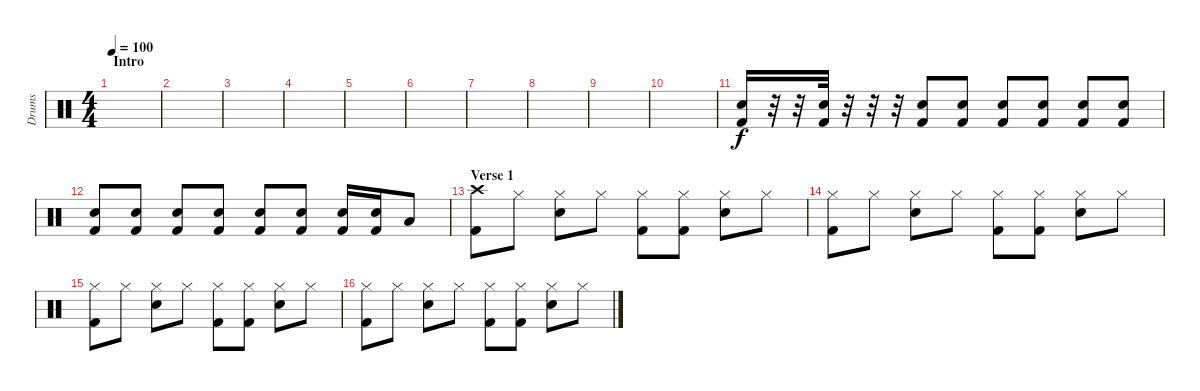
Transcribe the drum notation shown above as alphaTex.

\track ("Drums" "Drums") {instrument percussion}
\staff {score}
\articulation defaults
\ts (4 4)
\section ("" "Intro")
\tempo 100
\clef neutral
\ks c
|
|
|
|
|
|
|
|
|
|
("Snare (hit) 2" "Kick (hit) 2").16{volume 13} r.32{volume 5} r.32 ("Snare (hit) 2" "Kick (hit) 2").32{volume 13} r.32 r.32 r.32 ("Snare (hit) 2" "Kick (hit) 2").8 ("Snare (hit) 2" "Kick (hit) 2").8 ("Snare (hit) 2" "Kick (hit) 2").8 ("Snare (hit) 2" "Kick (hit) 2").8 ("Snare (hit) 2" "Kick (hit) 2").8 ("Snare (hit) 2" "Kick (hit) 2").8 |
("Snare (hit) 2" "Kick (hit) 2").8 ("Snare (hit) 2" "Kick (hit) 2").8 ("Snare (hit) 2" "Kick (hit) 2").8 ("Snare (hit) 2" "Kick (hit) 2").8 ("Snare (hit) 2" "Kick (hit) 2").8 ("Snare (hit) 2" "Kick (hit) 2").8 ("Snare (hit) 2" "Kick (hit) 2").16 ("Snare (hit) 2" "Kick (hit) 2").16 "Low Tom (hit)".8 |
\section ("" "Verse 1")
("Crash high (hit)" "Kick (hit) 2").8 "Hi-Hat (closed)".8 ("Hi-Hat (closed)" "Snare (hit) 2").8 "Hi-Hat (closed)".8 ("Hi-Hat (closed)" "Kick (hit) 2").8 ("Hi-Hat (closed)" "Kick (hit) 2").8 ("Hi-Hat (closed)" "Snare (hit) 2").8 "Hi-Hat (closed)".8 |
("Hi-Hat (closed)" "Kick (hit) 2").8 "Hi-Hat (closed)".8 ("Hi-Hat (closed)" "Snare (hit) 2").8 "Hi-Hat (closed)".8 ("Hi-Hat (closed)" "Kick (hit) 2").8 ("Hi-Hat (closed)" "Kick (hit) 2").8 ("Hi-Hat (closed)" "Snare (hit) 2").8 "Hi-Hat (closed)".8 |
("Hi-Hat (closed)" "Kick (hit) 2").8 "Hi-Hat (closed)".8 ("Hi-Hat (closed)" "Snare (hit) 2").8 "Hi-Hat (closed)".8 ("Hi-Hat (closed)" "Kick (hit) 2").8 ("Hi-Hat (closed)" "Kick (hit) 2").8 ("Hi-Hat (closed)" "Snare (hit) 2").8 "Hi-Hat (closed)".8 |
("Hi-Hat (closed)" "Kick (hit) 2").8 "Hi-Hat (closed)".8 ("Hi-Hat (closed)" "Snare (hit) 2").8 "Hi-Hat (closed)".8 ("Hi-Hat (closed)" "Kick (hit) 2").8 ("Hi-Hat (closed)" "Kick (hit) 2").8 ("Hi-Hat (closed)" "Snare (hit) 2").8 "Hi-Hat (closed)".8
